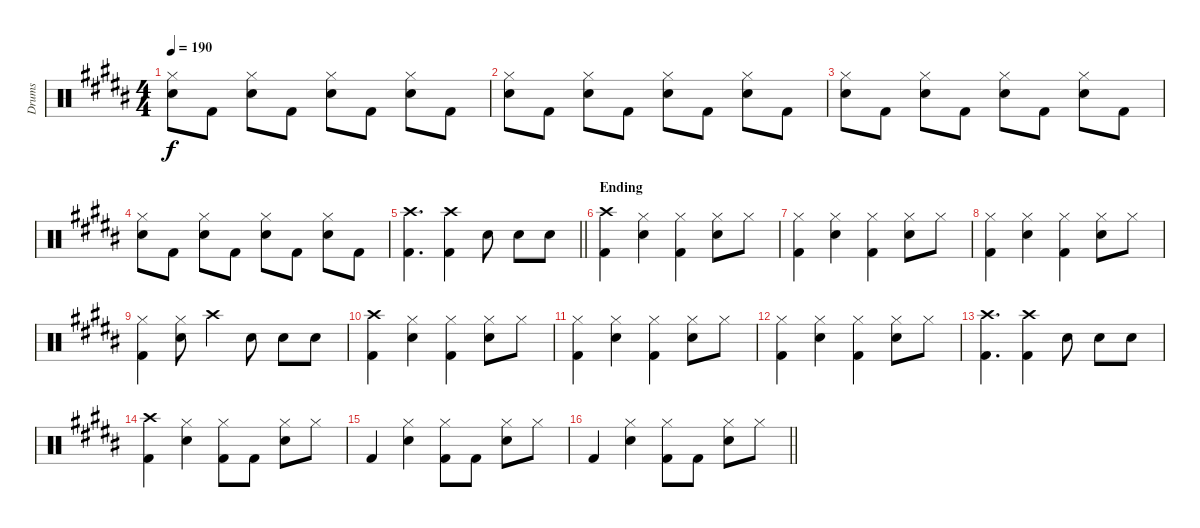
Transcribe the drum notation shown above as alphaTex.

\track ("Drums" "Drums") {instrument percussion}
\staff {score}
\articulation defaults
\ts (4 4)
\tempo 190
\clef neutral
\ks b
("Hi-Hat (closed)" "Electric Snare (hit)").8{dy f} "Kick (hit) 2".8 ("Hi-Hat (closed)" "Electric Snare (hit)").8 "Kick (hit) 2".8 ("Hi-Hat (closed)" "Electric Snare (hit)").8 "Kick (hit) 2".8 ("Hi-Hat (closed)" "Electric Snare (hit)").8 "Kick (hit) 2".8 |
("Hi-Hat (closed)" "Electric Snare (hit)").8 "Kick (hit) 2".8 ("Hi-Hat (closed)" "Electric Snare (hit)").8 "Kick (hit) 2".8 ("Hi-Hat (closed)" "Electric Snare (hit)").8 "Kick (hit) 2".8 ("Hi-Hat (closed)" "Electric Snare (hit)").8 "Kick (hit) 2".8 |
("Hi-Hat (closed)" "Electric Snare (hit)").8 "Kick (hit) 2".8 ("Hi-Hat (closed)" "Electric Snare (hit)").8 "Kick (hit) 2".8 ("Hi-Hat (closed)" "Electric Snare (hit)").8 "Kick (hit) 2".8 ("Hi-Hat (closed)" "Electric Snare (hit)").8 "Kick (hit) 2".8 |
("Hi-Hat (closed)" "Electric Snare (hit)").8 "Kick (hit) 2".8 ("Hi-Hat (closed)" "Electric Snare (hit)").8 "Kick (hit) 2".8 ("Hi-Hat (closed)" "Electric Snare (hit)").8 "Kick (hit) 2".8 ("Hi-Hat (closed)" "Electric Snare (hit)").8 "Kick (hit) 2".8 |
\barLineRight lightlight
("Crash high (hit)" "Kick (hit) 2").4{d} ("Crash high (hit)" "Kick (hit) 2").4 "Electric Snare (hit)".8 "Electric Snare (hit)".8 "Electric Snare (hit)".8 |
\section ("" "Ending")
("Crash high (hit)" "Kick (hit) 2").4 ("Hi-Hat (closed)" "Electric Snare (hit)").4 ("Hi-Hat (closed)" "Kick (hit) 2").4 ("Hi-Hat (closed)" "Electric Snare (hit)").8 "Hi-Hat (closed)".8 |
("Hi-Hat (closed)" "Kick (hit) 2").4 ("Hi-Hat (closed)" "Electric Snare (hit)").4 ("Hi-Hat (closed)" "Kick (hit) 2").4 ("Hi-Hat (closed)" "Electric Snare (hit)").8 "Hi-Hat (closed)".8 |
("Hi-Hat (closed)" "Kick (hit) 2").4 ("Hi-Hat (closed)" "Electric Snare (hit)").4 ("Hi-Hat (closed)" "Kick (hit) 2").4 ("Hi-Hat (closed)" "Electric Snare (hit)").8 "Hi-Hat (closed)".8 |
("Hi-Hat (closed)" "Kick (hit) 2").4 ("Hi-Hat (closed)" "Electric Snare (hit)").8 "Crash high (hit)".4 "Electric Snare (hit)".8 "Electric Snare (hit)".8 "Electric Snare (hit)".8 |
("Crash high (hit)" "Kick (hit) 2").4 ("Hi-Hat (closed)" "Electric Snare (hit)").4 ("Hi-Hat (closed)" "Kick (hit) 2").4 ("Hi-Hat (closed)" "Electric Snare (hit)").8 "Hi-Hat (closed)".8 |
("Hi-Hat (closed)" "Kick (hit) 2").4 ("Hi-Hat (closed)" "Electric Snare (hit)").4 ("Hi-Hat (closed)" "Kick (hit) 2").4 ("Hi-Hat (closed)" "Electric Snare (hit)").8 "Hi-Hat (closed)".8 |
("Hi-Hat (closed)" "Kick (hit) 2").4 ("Hi-Hat (closed)" "Electric Snare (hit)").4 ("Hi-Hat (closed)" "Kick (hit) 2").4 ("Hi-Hat (closed)" "Electric Snare (hit)").8 "Hi-Hat (closed)".8 |
("Crash high (hit)" "Kick (hit) 2").4{d} ("Crash high (hit)" "Kick (hit) 2").4 "Electric Snare (hit)".8 "Electric Snare (hit)".8 "Electric Snare (hit)".8 |
("Crash high (hit)" "Kick (hit) 2").4 ("Hi-Hat (closed)" "Electric Snare (hit)").4 ("Hi-Hat (closed)" "Kick (hit) 2").8 "Kick (hit) 2".8 ("Hi-Hat (closed)" "Electric Snare (hit)").8 "Hi-Hat (closed)".8 |
"Kick (hit) 2".4 ("Hi-Hat (closed)" "Electric Snare (hit)").4 ("Hi-Hat (closed)" "Kick (hit) 2").8 "Kick (hit) 2".8 ("Hi-Hat (closed)" "Electric Snare (hit)").8 "Hi-Hat (closed)".8 |
\barLineRight lightlight "Kick (hit) 2".4
("Hi-Hat (closed)" "Electric Snare (hit)").4 ("Hi-Hat (closed)" "Kick (hit) 2").8 "Kick (hit) 2".8 ("Hi-Hat (closed)" "Electric Snare (hit)").8 "Hi-Hat (closed)".8
